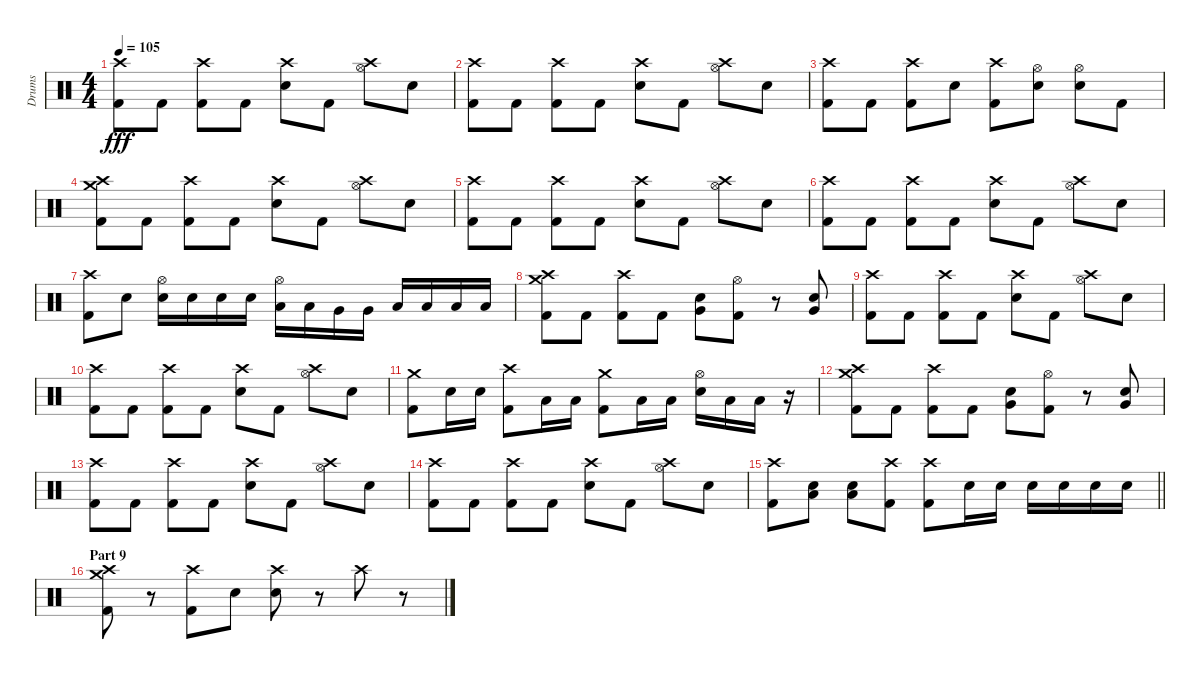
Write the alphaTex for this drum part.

\track ("Drums" "Drums") {instrument percussion}
\staff {score}
\articulation defaults
\ts (4 4)
\tempo 105
\clef neutral
\ks c
("Crash high (hit)" "Kick (hit) 2").8{dy fff} "Kick (hit) 2".8 ("Crash high (hit)" "Kick (hit) 2").8 "Kick (hit) 2".8 ("Crash high (hit)" "Electric Snare (hit)").8 "Kick (hit) 2".8 ("Crash high (hit)" "Hi-Hat (open)").8 "Electric Snare (hit)".8 |
("Crash high (hit)" "Kick (hit) 2").8 "Kick (hit) 2".8 ("Crash high (hit)" "Kick (hit) 2").8 "Kick (hit) 2".8 ("Crash high (hit)" "Electric Snare (hit)").8 "Kick (hit) 2".8 ("Crash high (hit)" "Hi-Hat (open)").8 "Electric Snare (hit)".8 |
("Crash high (hit)" "Kick (hit) 2").8 "Kick (hit) 2".8 ("Crash high (hit)" "Kick (hit) 2").8 "Electric Snare (hit)".8 ("Crash high (hit)" "Kick (hit) 2").8 ("Hi-Hat (open)" "Electric Snare (hit)").8 ("Hi-Hat (open)" "Electric Snare (hit)").8 "Kick (hit) 2".8 |
("Crash medium (hit)" "Crash high (hit)" "Kick (hit) 2").8 "Kick (hit) 2".8 ("Crash high (hit)" "Kick (hit) 2").8 "Kick (hit) 2".8 ("Crash high (hit)" "Electric Snare (hit)").8 "Kick (hit) 2".8 ("Crash high (hit)" "Hi-Hat (open)").8 "Electric Snare (hit)".8 |
("Crash high (hit)" "Kick (hit) 2").8 "Kick (hit) 2".8 ("Crash high (hit)" "Kick (hit) 2").8 "Kick (hit) 2".8 ("Crash high (hit)" "Electric Snare (hit)").8 "Kick (hit) 2".8 ("Crash high (hit)" "Hi-Hat (open)").8 "Electric Snare (hit)".8 |
("Crash high (hit)" "Kick (hit) 2").8 "Kick (hit) 2".8 ("Crash high (hit)" "Kick (hit) 2").8 "Kick (hit) 2".8 ("Crash high (hit)" "Electric Snare (hit)").8 "Kick (hit) 2".8 ("Crash high (hit)" "Hi-Hat (open)").8 "Electric Snare (hit)".8 |
("Crash high (hit)" "Kick (hit) 2").8 "Electric Snare (hit)".8 ("Hi-Hat (open)" "Electric Snare (hit)").16 "Electric Snare (hit)".16 "Electric Snare (hit)".16 "Electric Snare (hit)".16 ("Hi-Hat (open)" "Low Tom (hit)").16 "Low Tom (hit)".16 "Very Low Tom (hit)".16 "Very Low Tom (hit)".16 "Low Floor Tom (hit)".16 "Low Floor Tom (hit)".16 "Low Floor Tom (hit)".16 "Low Floor Tom (hit)".16 |
("Crash medium (hit)" "Crash high (hit)" "Kick (hit) 2").8 "Kick (hit) 2".8 ("Crash high (hit)" "Kick (hit) 2").8 "Kick (hit) 2".8 ("Electric Snare (hit)" "Very Low Tom (hit)").8 ("Hi-Hat (open)" "Kick (hit) 2").8 r.8 ("Electric Snare (hit)" "Very Low Tom (hit)").8 |
("Crash high (hit)" "Kick (hit) 2").8 "Kick (hit) 2".8 ("Crash high (hit)" "Kick (hit) 2").8 "Kick (hit) 2".8 ("Crash high (hit)" "Electric Snare (hit)").8 "Kick (hit) 2".8 ("Crash high (hit)" "Hi-Hat (open)").8 "Electric Snare (hit)".8 |
("Crash high (hit)" "Kick (hit) 2").8 "Kick (hit) 2".8 ("Crash high (hit)" "Kick (hit) 2").8 "Kick (hit) 2".8 ("Crash high (hit)" "Electric Snare (hit)").8 "Kick (hit) 2".8 ("Crash high (hit)" "Hi-Hat (open)").8 "Electric Snare (hit)".8 |
("Crash medium (hit)" "Kick (hit) 2").8 "Electric Snare (hit)".16 "Electric Snare (hit)".16 ("Crash high (hit)" "Kick (hit) 2").8 "Low Tom (hit)".16 "Low Tom (hit)".16 ("Crash medium (hit)" "Kick (hit) 2").8 "Low Tom (hit)".16 "Low Tom (hit)".16 ("Hi-Hat (open)" "Electric Snare (hit)").16 "Low Floor Tom (hit)".16 "Low Floor Tom (hit)".16 r.16 |
("Crash medium (hit)" "Crash high (hit)" "Kick (hit) 2").8 "Kick (hit) 2".8 ("Crash high (hit)" "Kick (hit) 2").8 "Kick (hit) 2".8 ("Electric Snare (hit)" "Very Low Tom (hit)").8 ("Hi-Hat (open)" "Kick (hit) 2").8 r.8 ("Electric Snare (hit)" "Very Low Tom (hit)").8 |
("Crash high (hit)" "Kick (hit) 2").8 "Kick (hit) 2".8 ("Crash high (hit)" "Kick (hit) 2").8 "Kick (hit) 2".8 ("Crash high (hit)" "Electric Snare (hit)").8 "Kick (hit) 2".8 ("Crash high (hit)" "Hi-Hat (open)").8 "Electric Snare (hit)".8 |
("Crash high (hit)" "Kick (hit) 2").8 "Kick (hit) 2".8 ("Crash high (hit)" "Kick (hit) 2").8 "Kick (hit) 2".8 ("Crash high (hit)" "Electric Snare (hit)").8 "Kick (hit) 2".8 ("Crash high (hit)" "Hi-Hat (open)").8 "Electric Snare (hit)".8 |
\barLineRight lightlight
("Crash high (hit)" "Kick (hit) 2").8 ("Low Floor Tom (hit)" "Electric Snare (hit)").8 ("Low Floor Tom (hit)" "Electric Snare (hit)").8 ("Crash high (hit)" "Kick (hit) 2").8 ("Crash high (hit)" "Kick (hit) 2").8 "Electric Snare (hit)".16 "Electric Snare (hit)".16 "Electric Snare (hit)".16 "Electric Snare (hit)".16 "Electric Snare (hit)".16 "Electric Snare (hit)".16 |
\section ("" "Part 9")
("Crash medium (hit)" "Crash high (hit)" "Kick (hit) 2").8 r.8 ("Crash high (hit)" "Kick (hit) 2").8 "Electric Snare (hit)".8 ("Crash high (hit)" "Electric Snare (hit)").8 r.8 "Crash high (hit)".8 r.8
